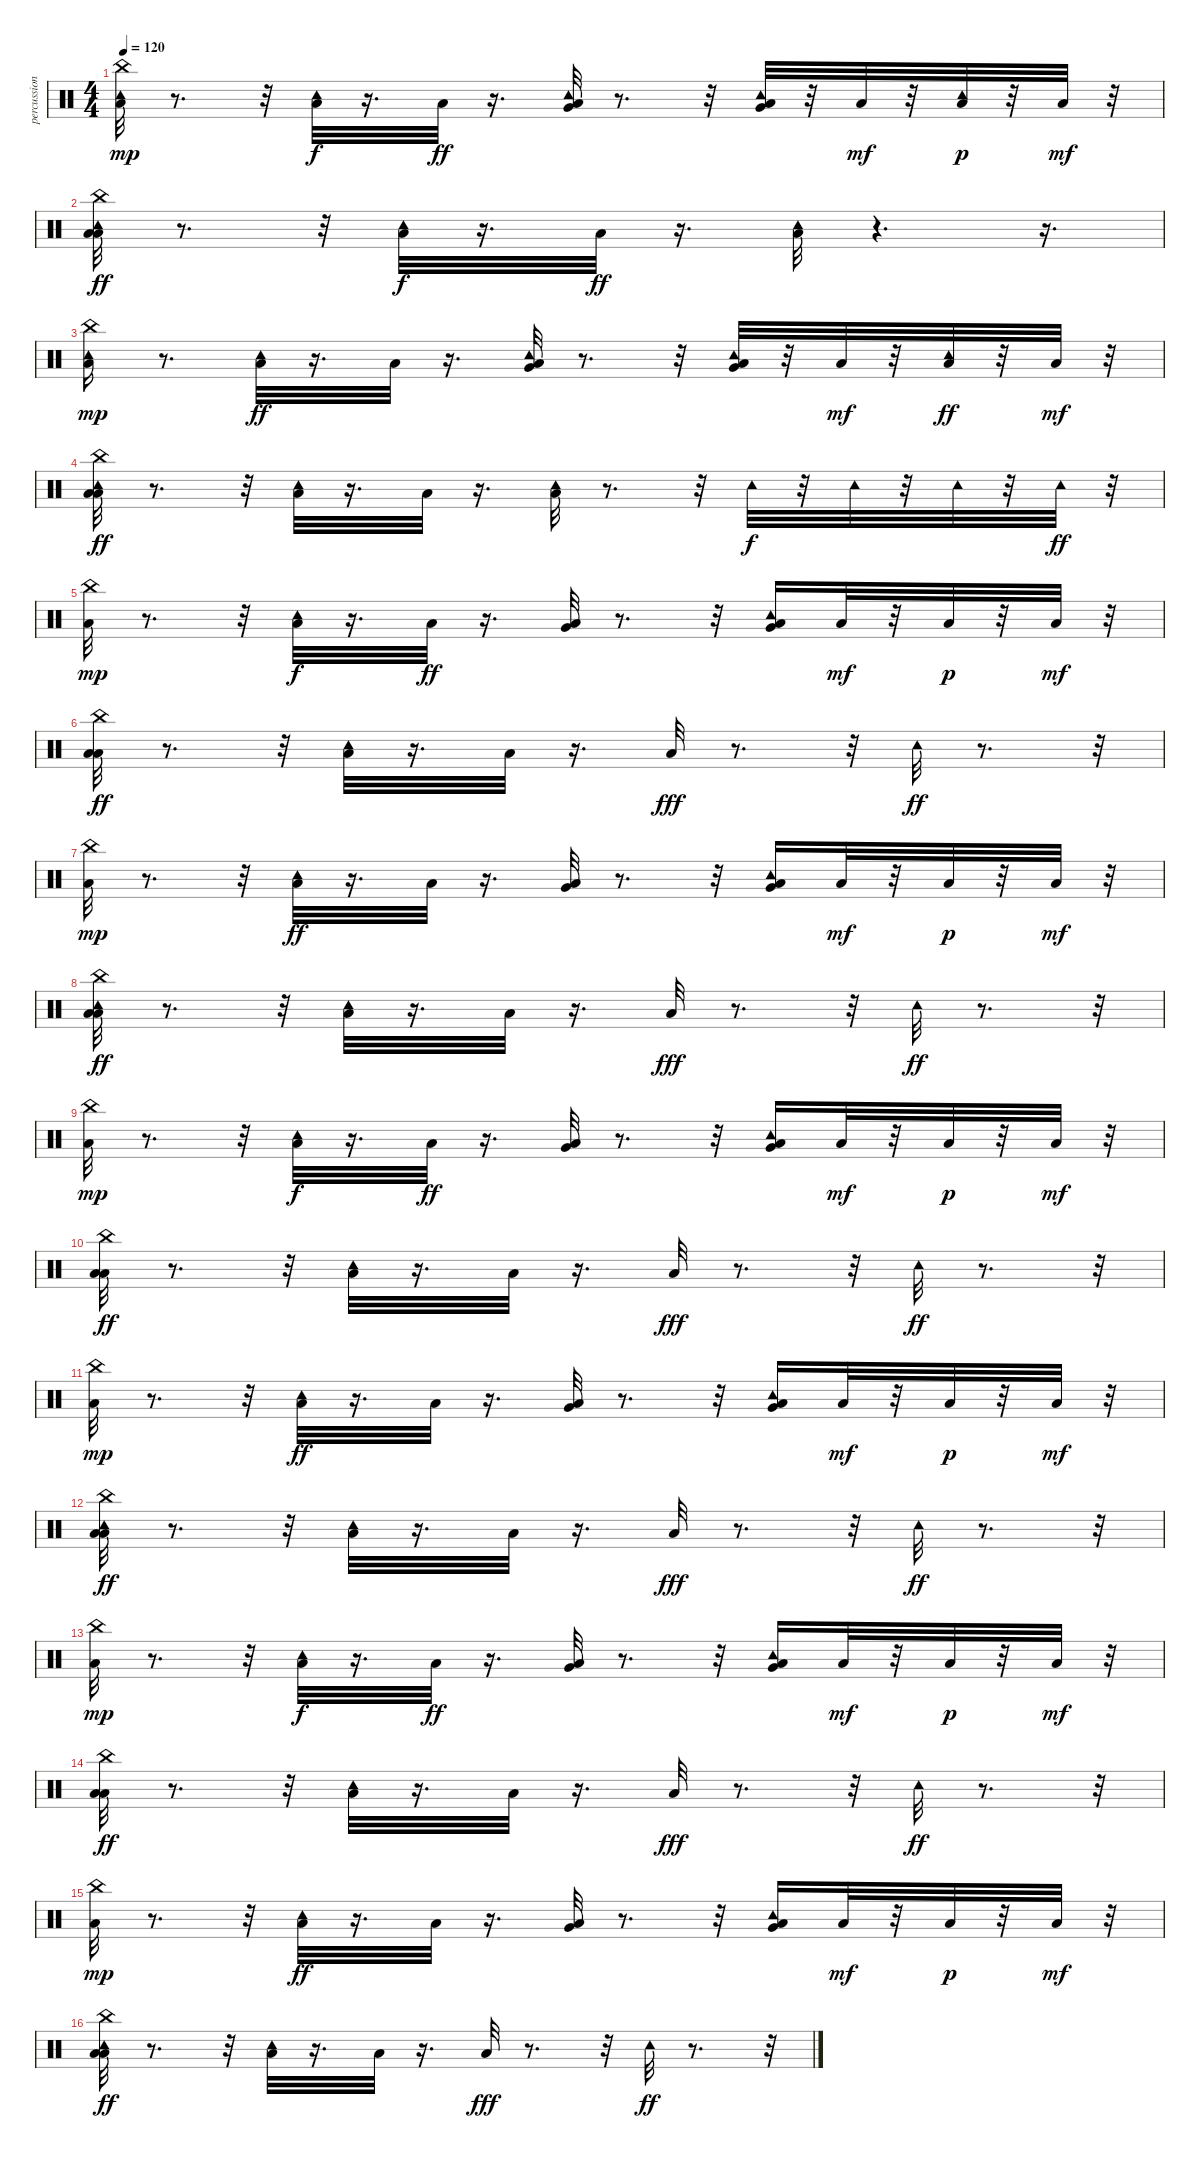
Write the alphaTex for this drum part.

\track ("percussion" "percussion") {instrument percussion}
\staff {score}
\articulation defaults
\ts (4 4)
\tempo 120
\clef neutral
\ks c
("Low Floor Tom (hit)" "China (hit)" "Tambourine (hit)").32{dy mp} r.8{d} r.32 ("Low Floor Tom (hit)" "Tambourine (hit)").32{dy f} r.16{d} "Low Floor Tom (hit)".32{dy ff} r.16{d} ("Low Floor Tom (hit)" "Very Low Tom (hit)" "Tambourine (hit)").32 r.8{d} r.32 ("Very Low Tom (hit)" "Low Floor Tom (hit)" "Tambourine (hit)").32 r.32 "Low Floor Tom (hit)".32{dy mf} r.32 ("Low Floor Tom (hit)" "Tambourine (hit)").32{dy p} r.32 "Low Floor Tom (hit)".32{dy mf} r.32 |
("Low Floor Tom (hit)" "China (hit)" "Low Floor Tom (hit)" "Tambourine (hit)").32{dy ff} r.8{d} r.32 ("Low Floor Tom (hit)" "Tambourine (hit)").32{dy f} r.16{d} "Low Floor Tom (hit)".32{dy ff} r.16{d} ("Low Floor Tom (hit)" "Tambourine (hit)").32 r.4{d} r.16{d} |
("Low Floor Tom (hit)" "China (hit)" "Tambourine (hit)").16{dy mp} r.8{d} ("Low Floor Tom (hit)" "Tambourine (hit)").32{dy ff} r.16{d} "Low Floor Tom (hit)".32 r.16{d} ("Low Floor Tom (hit)" "Very Low Tom (hit)" "Tambourine (hit)").32 r.8{d} r.32 ("Very Low Tom (hit)" "Low Floor Tom (hit)" "Tambourine (hit)").32 r.32 "Low Floor Tom (hit)".32{dy mf} r.32 ("Low Floor Tom (hit)" "Tambourine (hit)").32{dy ff} r.32 "Low Floor Tom (hit)".32{dy mf} r.32 |
("Low Floor Tom (hit)" "China (hit)" "Low Floor Tom (hit)" "Tambourine (hit)").32{dy ff} r.8{d} r.32 ("Low Floor Tom (hit)" "Tambourine (hit)").32 r.16{d} "Low Floor Tom (hit)".32 r.16{d} ("Low Floor Tom (hit)" "Tambourine (hit)").32 r.8{d} r.32 "Tambourine (hit)".32{dy f} r.32 "Tambourine (hit)".32 r.32 "Tambourine (hit)".32 r.32 "Tambourine (hit)".32{dy ff} r.32 |
("Low Floor Tom (hit)" "China (hit)").32{dy mp} r.8{d} r.32 ("Low Floor Tom (hit)" "Tambourine (hit)").32{dy f} r.16{d} "Low Floor Tom (hit)".32{dy ff} r.16{d} ("Low Floor Tom (hit)" "Very Low Tom (hit)").32 r.8{d} r.32 ("Very Low Tom (hit)" "Low Floor Tom (hit)" "Tambourine (hit)").16 "Low Floor Tom (hit)".32{dy mf} r.32 "Low Floor Tom (hit)".32{dy p} r.32 "Low Floor Tom (hit)".32{dy mf} r.32 |
("Low Floor Tom (hit)" "China (hit)" "Low Floor Tom (hit)").32{dy ff} r.8{d} r.32 ("Low Floor Tom (hit)" "Tambourine (hit)").32 r.16{d} "Low Floor Tom (hit)".32 r.16{d} "Low Floor Tom (hit)".32{dy fff} r.8{d} r.32 "Tambourine (hit)".32{dy ff} r.8{d} r.32 |
("Low Floor Tom (hit)" "China (hit)").32{dy mp} r.8{d} r.32 ("Low Floor Tom (hit)" "Tambourine (hit)").32{dy ff} r.16{d} "Low Floor Tom (hit)".32 r.16{d} ("Low Floor Tom (hit)" "Very Low Tom (hit)").32 r.8{d} r.32 ("Very Low Tom (hit)" "Low Floor Tom (hit)" "Tambourine (hit)").16 "Low Floor Tom (hit)".32{dy mf} r.32 "Low Floor Tom (hit)".32{dy p} r.32 "Low Floor Tom (hit)".32{dy mf} r.32 |
("Low Floor Tom (hit)" "China (hit)" "Low Floor Tom (hit)" "Tambourine (hit)").32{dy ff} r.8{d} r.32 ("Low Floor Tom (hit)" "Tambourine (hit)").32 r.16{d} "Low Floor Tom (hit)".32 r.16{d} "Low Floor Tom (hit)".32{dy fff} r.8{d} r.32 "Tambourine (hit)".32{dy ff} r.8{d} r.32 |
("Low Floor Tom (hit)" "China (hit)").32{dy mp} r.8{d} r.32 ("Low Floor Tom (hit)" "Tambourine (hit)").32{dy f} r.16{d} "Low Floor Tom (hit)".32{dy ff} r.16{d} ("Low Floor Tom (hit)" "Very Low Tom (hit)").32 r.8{d} r.32 ("Very Low Tom (hit)" "Low Floor Tom (hit)" "Tambourine (hit)").16 "Low Floor Tom (hit)".32{dy mf} r.32 "Low Floor Tom (hit)".32{dy p} r.32 "Low Floor Tom (hit)".32{dy mf} r.32 |
("Low Floor Tom (hit)" "China (hit)" "Low Floor Tom (hit)").32{dy ff} r.8{d} r.32 ("Low Floor Tom (hit)" "Tambourine (hit)").32 r.16{d} "Low Floor Tom (hit)".32 r.16{d} "Low Floor Tom (hit)".32{dy fff} r.8{d} r.32 "Tambourine (hit)".32{dy ff} r.8{d} r.32 |
("Low Floor Tom (hit)" "China (hit)").32{dy mp} r.8{d} r.32 ("Low Floor Tom (hit)" "Tambourine (hit)").32{dy ff} r.16{d} "Low Floor Tom (hit)".32 r.16{d} ("Low Floor Tom (hit)" "Very Low Tom (hit)").32 r.8{d} r.32 ("Very Low Tom (hit)" "Low Floor Tom (hit)" "Tambourine (hit)").16 "Low Floor Tom (hit)".32{dy mf} r.32 "Low Floor Tom (hit)".32{dy p} r.32 "Low Floor Tom (hit)".32{dy mf} r.32 |
("Low Floor Tom (hit)" "China (hit)" "Low Floor Tom (hit)" "Tambourine (hit)").32{dy ff} r.8{d} r.32 ("Low Floor Tom (hit)" "Tambourine (hit)").32 r.16{d} "Low Floor Tom (hit)".32 r.16{d} "Low Floor Tom (hit)".32{dy fff} r.8{d} r.32 "Tambourine (hit)".32{dy ff} r.8{d} r.32 |
("Low Floor Tom (hit)" "China (hit)").32{dy mp} r.8{d} r.32 ("Low Floor Tom (hit)" "Tambourine (hit)").32{dy f} r.16{d} "Low Floor Tom (hit)".32{dy ff} r.16{d} ("Low Floor Tom (hit)" "Very Low Tom (hit)").32 r.8{d} r.32 ("Very Low Tom (hit)" "Low Floor Tom (hit)" "Tambourine (hit)").16 "Low Floor Tom (hit)".32{dy mf} r.32 "Low Floor Tom (hit)".32{dy p} r.32 "Low Floor Tom (hit)".32{dy mf} r.32 |
("Low Floor Tom (hit)" "China (hit)" "Low Floor Tom (hit)").32{dy ff} r.8{d} r.32 ("Low Floor Tom (hit)" "Tambourine (hit)").32 r.16{d} "Low Floor Tom (hit)".32 r.16{d} "Low Floor Tom (hit)".32{dy fff} r.8{d} r.32 "Tambourine (hit)".32{dy ff} r.8{d} r.32 |
("Low Floor Tom (hit)" "China (hit)").32{dy mp} r.8{d} r.32 ("Low Floor Tom (hit)" "Tambourine (hit)").32{dy ff} r.16{d} "Low Floor Tom (hit)".32 r.16{d} ("Low Floor Tom (hit)" "Very Low Tom (hit)").32 r.8{d} r.32 ("Very Low Tom (hit)" "Low Floor Tom (hit)" "Tambourine (hit)").16 "Low Floor Tom (hit)".32{dy mf} r.32 "Low Floor Tom (hit)".32{dy p} r.32 "Low Floor Tom (hit)".32{dy mf} r.32 |
("Low Floor Tom (hit)" "China (hit)" "Low Floor Tom (hit)" "Tambourine (hit)").32{dy ff} r.8{d} r.32 ("Low Floor Tom (hit)" "Tambourine (hit)").32 r.16{d} "Low Floor Tom (hit)".32 r.16{d} "Low Floor Tom (hit)".32{dy fff} r.8{d} r.32 "Tambourine (hit)".32{dy ff} r.8{d} r.32
